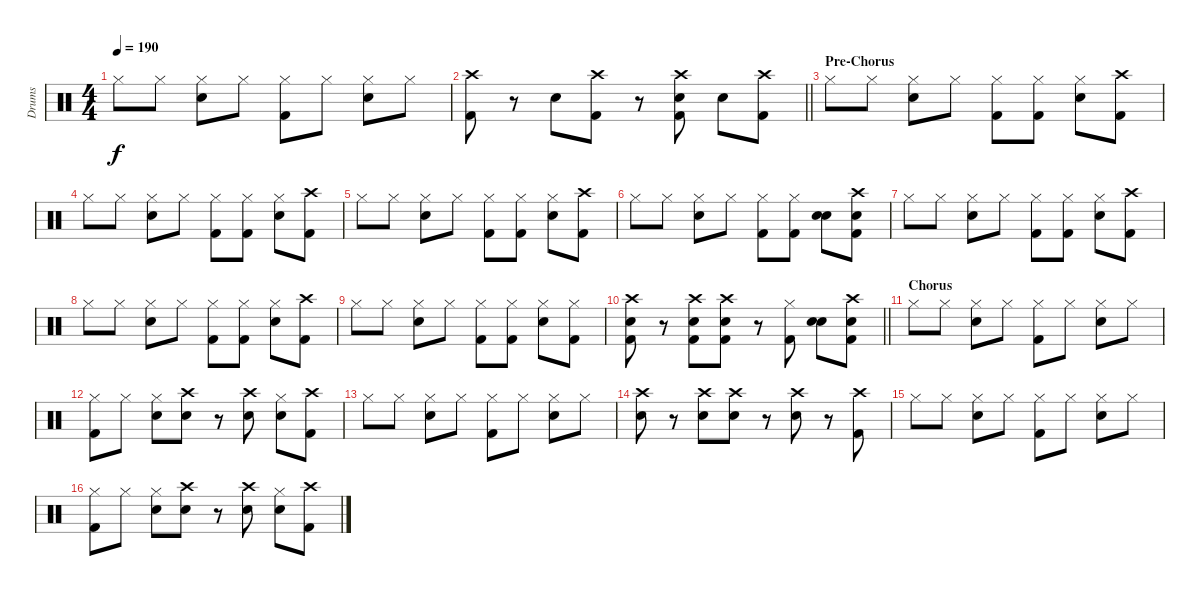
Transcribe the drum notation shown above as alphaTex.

\track ("Drums" "Drums") {instrument percussion}
\staff {score}
\articulation defaults
\ts (4 4)
\tempo 190
\clef neutral
\ks c "Hi-Hat (closed)".8{dy f} "Hi-Hat (closed)".8
("Hi-Hat (closed)" "Snare (hit) 2").8 "Hi-Hat (closed)".8 ("Hi-Hat (closed)" "Kick (hit) 2").8 "Hi-Hat (closed)".8 ("Hi-Hat (closed)" "Snare (hit) 2").8 "Hi-Hat (closed)".8 |
\barLineRight lightlight
("Crash high (hit)" "Kick (hit) 2").8 r.8 "Snare (hit) 2".8 ("Crash high (hit)" "Kick (hit) 2").8 r.8 ("Crash high (hit)" "Snare (hit) 2" "Kick (hit) 2").8 "Snare (hit) 2".8 ("Crash high (hit)" "Kick (hit) 2").8 |
\section ("" "Pre-Chorus")
"Hi-Hat (closed)".8 "Hi-Hat (closed)".8 ("Hi-Hat (closed)" "Snare (hit) 2").8 "Hi-Hat (closed)".8 ("Hi-Hat (closed)" "Kick (hit) 2").8 ("Hi-Hat (closed)" "Kick (hit) 2").8 ("Hi-Hat (closed)" "Snare (hit) 2").8 ("Crash high (hit)" "Kick (hit) 2").8 |
"Hi-Hat (closed)".8 "Hi-Hat (closed)".8 ("Hi-Hat (closed)" "Snare (hit) 2").8 "Hi-Hat (closed)".8 ("Hi-Hat (closed)" "Kick (hit) 2").8 ("Hi-Hat (closed)" "Kick (hit) 2").8 ("Hi-Hat (closed)" "Snare (hit) 2").8 ("Crash high (hit)" "Kick (hit) 2").8 |
"Hi-Hat (closed)".8 "Hi-Hat (closed)".8 ("Hi-Hat (closed)" "Snare (hit) 2").8 "Hi-Hat (closed)".8 ("Hi-Hat (closed)" "Kick (hit) 2").8 ("Hi-Hat (closed)" "Kick (hit) 2").8 ("Hi-Hat (closed)" "Snare (hit) 2").8 ("Crash high (hit)" "Kick (hit) 2").8 |
"Hi-Hat (closed)".8 "Hi-Hat (closed)".8 ("Hi-Hat (closed)" "Snare (hit) 2").8 "Hi-Hat (closed)".8 ("Hi-Hat (closed)" "Kick (hit) 2").8 ("Hi-Hat (closed)" "Kick (hit) 2").8 ("Snare (hit) 2" "Snare (hit) 2").8 ("Crash high (hit)" "Kick (hit) 2" "Snare (hit) 2").8 |
"Hi-Hat (closed)".8 "Hi-Hat (closed)".8 ("Hi-Hat (closed)" "Snare (hit) 2").8 "Hi-Hat (closed)".8 ("Hi-Hat (closed)" "Kick (hit) 2").8 ("Hi-Hat (closed)" "Kick (hit) 2").8 ("Hi-Hat (closed)" "Snare (hit) 2").8 ("Crash high (hit)" "Kick (hit) 2").8 |
"Hi-Hat (closed)".8 "Hi-Hat (closed)".8 ("Hi-Hat (closed)" "Snare (hit) 2").8 "Hi-Hat (closed)".8 ("Hi-Hat (closed)" "Kick (hit) 2").8 ("Hi-Hat (closed)" "Kick (hit) 2").8 ("Hi-Hat (closed)" "Snare (hit) 2").8 ("Crash high (hit)" "Kick (hit) 2").8 |
"Hi-Hat (closed)".8 "Hi-Hat (closed)".8 ("Hi-Hat (closed)" "Snare (hit) 2").8 "Hi-Hat (closed)".8 ("Hi-Hat (closed)" "Kick (hit) 2").8 ("Hi-Hat (closed)" "Kick (hit) 2").8 ("Hi-Hat (closed)" "Snare (hit) 2").8 ("Hi-Hat (closed)" "Kick (hit) 2").8 |
\barLineRight lightlight
("Crash high (hit)" "Snare (hit) 2" "Kick (hit) 2").8 r.8 ("Crash high (hit)" "Snare (hit) 2" "Kick (hit) 2").8 ("Crash high (hit)" "Snare (hit) 2" "Kick (hit) 2").8 r.8 ("Hi-Hat (closed)" "Kick (hit) 2").8 ("Snare (hit) 2" "Snare (hit) 2").8 ("Crash high (hit)" "Kick (hit) 2" "Snare (hit) 2").8 |
\section ("" "Chorus")
"Hi-Hat (closed)".8 "Hi-Hat (closed)".8 ("Hi-Hat (closed)" "Snare (hit) 2").8 "Hi-Hat (closed)".8 ("Hi-Hat (closed)" "Kick (hit) 2").8 "Hi-Hat (closed)".8 ("Hi-Hat (closed)" "Snare (hit) 2").8 "Hi-Hat (closed)".8 |
("Hi-Hat (closed)" "Kick (hit) 2").8 "Hi-Hat (closed)".8 ("Hi-Hat (closed)" "Snare (hit) 2").8 ("Crash high (hit)" "Snare (hit) 2").8 r.8 ("Crash high (hit)" "Snare (hit) 2").8 ("Hi-Hat (closed)" "Snare (hit) 2").8 ("Crash high (hit)" "Kick (hit) 2").8 |
"Hi-Hat (closed)".8 "Hi-Hat (closed)".8 ("Hi-Hat (closed)" "Snare (hit) 2").8 "Hi-Hat (closed)".8 ("Hi-Hat (closed)" "Kick (hit) 2").8 "Hi-Hat (closed)".8 ("Hi-Hat (closed)" "Snare (hit) 2").8 "Hi-Hat (closed)".8 |
("Crash high (hit)" "Snare (hit) 2").8 r.8 ("Crash high (hit)" "Snare (hit) 2").8 ("Crash high (hit)" "Snare (hit) 2").8 r.8 ("Crash high (hit)" "Snare (hit) 2").8 r.8 ("Crash high (hit)" "Kick (hit) 2").8 |
"Hi-Hat (closed)".8 "Hi-Hat (closed)".8 ("Hi-Hat (closed)" "Snare (hit) 2").8 "Hi-Hat (closed)".8 ("Hi-Hat (closed)" "Kick (hit) 2").8 "Hi-Hat (closed)".8 ("Hi-Hat (closed)" "Snare (hit) 2").8 "Hi-Hat (closed)".8 |
("Hi-Hat (closed)" "Kick (hit) 2").8 "Hi-Hat (closed)".8 ("Hi-Hat (closed)" "Snare (hit) 2").8 ("Crash high (hit)" "Snare (hit) 2").8 r.8 ("Crash high (hit)" "Snare (hit) 2").8 ("Hi-Hat (closed)" "Snare (hit) 2").8 ("Crash high (hit)" "Kick (hit) 2").8
